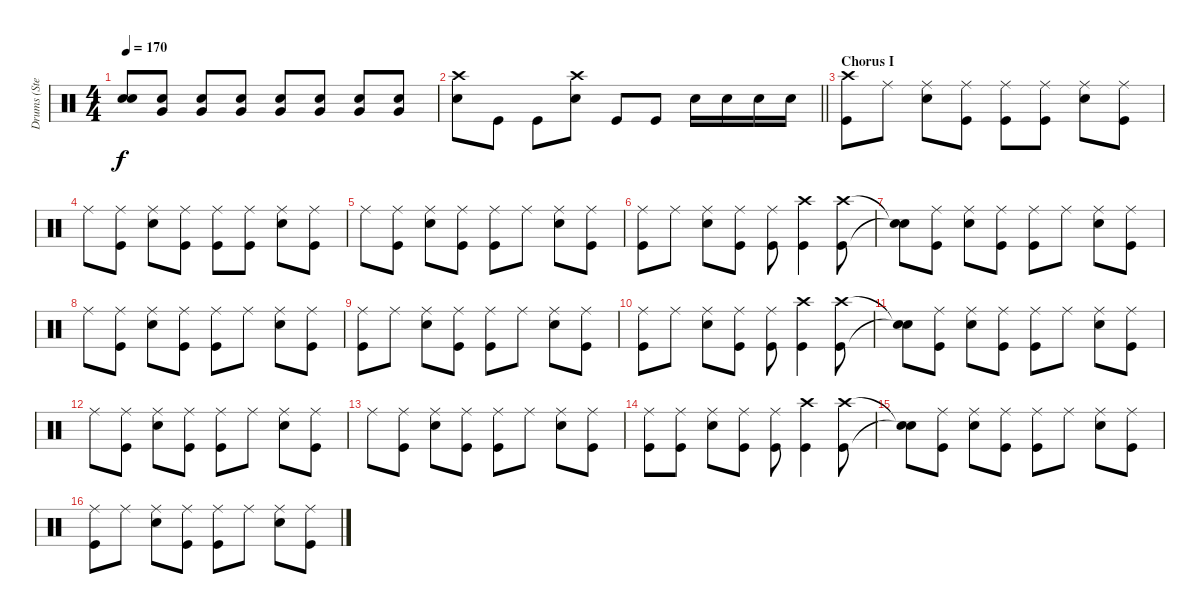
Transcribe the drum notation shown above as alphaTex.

\track ("Drums (Steven)" "Drums (Ste") {instrument percussion}
\staff {score}
\articulation defaults
\ts (4 4)
\tempo 170
\clef neutral
\ks c
("Snare (hit) 2" "Snare (hit) 2").8{dy f} ("Snare (hit) 2" "Very Low Tom (hit)").8 ("Snare (hit) 2" "Very Low Tom (hit)").8 ("Snare (hit) 2" "Very Low Tom (hit)").8 ("Snare (hit) 2" "Very Low Tom (hit)").8 ("Snare (hit) 2" "Very Low Tom (hit)").8 ("Snare (hit) 2" "Very Low Tom (hit)").8 ("Snare (hit) 2" "Very Low Tom (hit)").8 |
\barLineRight lightlight
("Crash high (hit)" "Snare (hit) 2").8 "Kick (hit)".8 "Kick (hit)".8 ("Crash high (hit)" "Snare (hit) 2").8 "Kick (hit)".8 "Kick (hit)".8 "Electric Snare (hit)".16 "Electric Snare (hit)".16 "Electric Snare (hit)".16 "Electric Snare (hit)".16 |
\section ("" "Chorus I")
("Crash high (hit)" "Kick (hit)").8 "Ride (middle)".8 ("Ride (middle)" "Snare (hit) 2").8 ("Ride (middle)" "Kick (hit)").8 ("Ride (middle)" "Kick (hit)").8 ("Ride (middle)" "Kick (hit)").8 ("Ride (middle)" "Snare (hit) 2").8 ("Ride (middle)" "Kick (hit)").8 |
"Ride (middle)".8 ("Ride (middle)" "Kick (hit)").8 ("Ride (middle)" "Snare (hit) 2").8 ("Ride (middle)" "Kick (hit)").8 ("Ride (middle)" "Kick (hit)").8 ("Ride (middle)" "Kick (hit)").8 ("Ride (middle)" "Snare (hit) 2").8 ("Ride (middle)" "Kick (hit)").8 |
"Ride (middle)".8 ("Ride (middle)" "Kick (hit)").8 ("Ride (middle)" "Snare (hit) 2").8 ("Ride (middle)" "Kick (hit)").8 ("Ride (middle)" "Kick (hit)").8 "Ride (middle)".8 ("Ride (middle)" "Snare (hit) 2").8 ("Ride (middle)" "Kick (hit)").8 |
("Ride (middle)" "Kick (hit)").8 "Ride (middle)".8 ("Ride (middle)" "Snare (hit) 2").8 ("Ride (middle)" "Kick (hit)").8 ("Ride (middle)" "Kick (hit)").8 ("Crash high (hit)" "Kick (hit)").4 ("Crash high (hit)" "Kick (hit)").8 |
("Snare (hit)"{t} "Snare (hit)"{t}).8 ("Ride (middle)" "Kick (hit)").8 ("Ride (middle)" "Snare (hit) 2").8 ("Ride (middle)" "Kick (hit)").8 ("Ride (middle)" "Kick (hit)").8 "Ride (middle)".8 ("Ride (middle)" "Snare (hit) 2").8 ("Ride (middle)" "Kick (hit)").8 |
"Ride (middle)".8 ("Ride (middle)" "Kick (hit)").8 ("Ride (middle)" "Snare (hit) 2").8 ("Ride (middle)" "Kick (hit)").8 ("Ride (middle)" "Kick (hit)").8 "Ride (middle)".8 ("Ride (middle)" "Snare (hit) 2").8 ("Ride (middle)" "Kick (hit)").8 |
("Ride (middle)" "Kick (hit)").8 "Ride (middle)".8 ("Ride (middle)" "Snare (hit) 2").8 ("Ride (middle)" "Kick (hit)").8 ("Ride (middle)" "Kick (hit)").8 "Ride (middle)".8 ("Ride (middle)" "Snare (hit) 2").8 ("Ride (middle)" "Kick (hit)").8 |
("Ride (middle)" "Kick (hit)").8 "Ride (middle)".8 ("Ride (middle)" "Snare (hit) 2").8 ("Ride (middle)" "Kick (hit)").8 ("Ride (middle)" "Kick (hit)").8 ("Crash high (hit)" "Kick (hit)").4 ("Crash high (hit)" "Kick (hit)").8 |
("Snare (hit)"{t} "Snare (hit)"{t}).8 ("Ride (middle)" "Kick (hit)").8 ("Ride (middle)" "Snare (hit) 2").8 ("Ride (middle)" "Kick (hit)").8 ("Ride (middle)" "Kick (hit)").8 "Ride (middle)".8 ("Ride (middle)" "Snare (hit) 2").8 ("Ride (middle)" "Kick (hit)").8 |
"Ride (middle)".8 ("Ride (middle)" "Kick (hit)").8 ("Ride (middle)" "Snare (hit) 2").8 ("Ride (middle)" "Kick (hit)").8 ("Ride (middle)" "Kick (hit)").8 "Ride (middle)".8 ("Ride (middle)" "Snare (hit) 2").8 ("Ride (middle)" "Kick (hit)").8 |
"Ride (middle)".8 ("Ride (middle)" "Kick (hit)").8 ("Ride (middle)" "Snare (hit) 2").8 ("Ride (middle)" "Kick (hit)").8 ("Ride (middle)" "Kick (hit)").8 "Ride (middle)".8 ("Ride (middle)" "Snare (hit) 2").8 ("Ride (middle)" "Kick (hit)").8 |
("Ride (middle)" "Kick (hit)").8 ("Ride (middle)" "Kick (hit)").8 ("Ride (middle)" "Snare (hit) 2").8 ("Ride (middle)" "Kick (hit)").8 ("Ride (middle)" "Kick (hit)").8 ("Crash high (hit)" "Kick (hit)").4 ("Crash high (hit)" "Kick (hit)").8 |
("Snare (hit)"{t} "Snare (hit)"{t}).8 ("Ride (middle)" "Kick (hit)").8 ("Ride (middle)" "Snare (hit) 2").8 ("Ride (middle)" "Kick (hit)").8 ("Ride (middle)" "Kick (hit)").8 "Ride (middle)".8 ("Ride (middle)" "Snare (hit) 2").8 ("Ride (middle)" "Kick (hit)").8 |
("Ride (middle)" "Kick (hit)").8 "Ride (middle)".8 ("Ride (middle)" "Snare (hit) 2").8 ("Ride (middle)" "Kick (hit)").8 ("Ride (middle)" "Kick (hit)").8 "Ride (middle)".8 ("Ride (middle)" "Snare (hit) 2").8 ("Ride (middle)" "Kick (hit)").8
